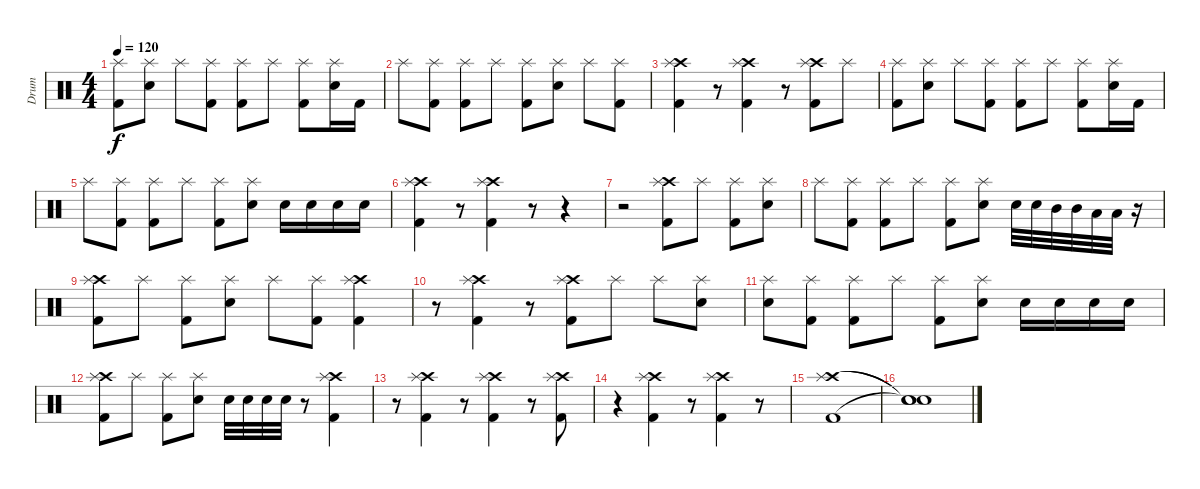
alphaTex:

\track ("Drum" "Drum") {instrument percussion}
\staff {score}
\articulation defaults
\ts (4 4)
\tempo 120
\clef neutral
\ks c
("Splash (hit)" "Kick (hit) 2").8{dy f} ("Splash (hit)" "Snare (hit) 2").8 "Splash (hit)".8 ("Splash (hit)" "Kick (hit) 2").8 ("Splash (hit)" "Kick (hit) 2").8 "Splash (hit)".8 ("Splash (hit)" "Kick (hit) 2").8 ("Splash (hit)" "Snare (hit) 2").16 "Kick (hit) 2".16 |
"Splash (hit)".8 ("Splash (hit)" "Kick (hit) 2").8 ("Splash (hit)" "Kick (hit) 2").8 "Splash (hit)".8 ("Splash (hit)" "Kick (hit) 2").8 ("Splash (hit)" "Snare (hit) 2").8 "Splash (hit)".8 ("Splash (hit)" "Kick (hit) 2").8 |
("Crash high (hit)" "Splash (hit)" "Kick (hit) 2").4 r.8 ("Crash high (hit)" "Splash (hit)" "Kick (hit) 2").4 r.8 ("Crash high (hit)" "Splash (hit)" "Kick (hit) 2").8 "Splash (hit)".8 |
("Splash (hit)" "Kick (hit) 2").8 ("Splash (hit)" "Snare (hit) 2").8 "Splash (hit)".8 ("Splash (hit)" "Kick (hit) 2").8 ("Splash (hit)" "Kick (hit) 2").8 "Splash (hit)".8 ("Splash (hit)" "Kick (hit) 2").8 ("Splash (hit)" "Snare (hit) 2").16 "Kick (hit) 2".16 |
"Splash (hit)".8 ("Splash (hit)" "Kick (hit) 2").8 ("Splash (hit)" "Kick (hit) 2").8 "Splash (hit)".8 ("Splash (hit)" "Kick (hit) 2").8 ("Splash (hit)" "Snare (hit) 2").8 "Snare (hit) 2".16 "Snare (hit) 2".16 "Snare (hit) 2".16 "Snare (hit) 2".16 |
("Crash high (hit)" "Splash (hit)" "Kick (hit) 2").4 r.8 ("Crash high (hit)" "Splash (hit)" "Kick (hit) 2").4 r.8 r.4 |
r.2 ("Crash high (hit)" "Splash (hit)" "Kick (hit) 2").8 "Splash (hit)".8 ("Splash (hit)" "Kick (hit) 2").8 ("Splash (hit)" "Snare (hit) 2").8 |
"Splash (hit)".8 ("Splash (hit)" "Kick (hit) 2").8 ("Splash (hit)" "Kick (hit) 2").8 "Splash (hit)".8 ("Splash (hit)" "Kick (hit) 2").8 ("Splash (hit)" "Snare (hit) 2").8 "Snare (hit) 2".32 "Snare (hit) 2".32 "Mid Tom (hit)".32 "Mid Tom (hit)".32 "Low Tom (hit)".32 "Low Tom (hit)".32 r.16 |
("Crash high (hit)" "Splash (hit)" "Kick (hit) 2").8 "Splash (hit)".8 ("Splash (hit)" "Kick (hit) 2").8 ("Splash (hit)" "Snare (hit) 2").8 "Splash (hit)".8 ("Splash (hit)" "Kick (hit) 2").8 ("Crash high (hit)" "Splash (hit)" "Kick (hit) 2").4 |
r.8 ("Crash high (hit)" "Splash (hit)" "Kick (hit) 2").4 r.8 ("Crash high (hit)" "Splash (hit)" "Kick (hit) 2").8 "Splash (hit)".8 "Splash (hit)".8 ("Splash (hit)" "Snare (hit) 2").8 |
("Splash (hit)" "Snare (hit) 2").8 ("Splash (hit)" "Kick (hit) 2").8 ("Splash (hit)" "Kick (hit) 2").8 "Splash (hit)".8 ("Splash (hit)" "Kick (hit) 2").8 ("Splash (hit)" "Snare (hit) 2").8 "Snare (hit) 2".16 "Snare (hit) 2".16 "Snare (hit) 2".16 "Snare (hit) 2".16 |
("Crash high (hit)" "Splash (hit)" "Kick (hit) 2").8 "Splash (hit)".8 ("Splash (hit)" "Kick (hit) 2").8 ("Splash (hit)" "Snare (hit) 2").8 "Snare (hit) 2".32 "Snare (hit) 2".32 "Snare (hit) 2".32 "Snare (hit) 2".32 r.8 ("Crash high (hit)" "Splash (hit)" "Kick (hit) 2").4 |
r.8 ("Crash high (hit)" "Splash (hit)" "Kick (hit) 2").4 r.8 ("Crash high (hit)" "Splash (hit)" "Kick (hit) 2").4 r.8 ("Crash high (hit)" "Splash (hit)" "Kick (hit) 2").8 |
r.4 ("Crash high (hit)" "Splash (hit)" "Kick (hit) 2").4 r.8 ("Crash high (hit)" "Splash (hit)" "Kick (hit) 2").4 r.8 |
("Crash high (hit)" "Splash (hit)" "Kick (hit) 2").1 |
("Snare (hit)"{t} "Snare (hit)"{t} "Snare (hit)"{t}).1
